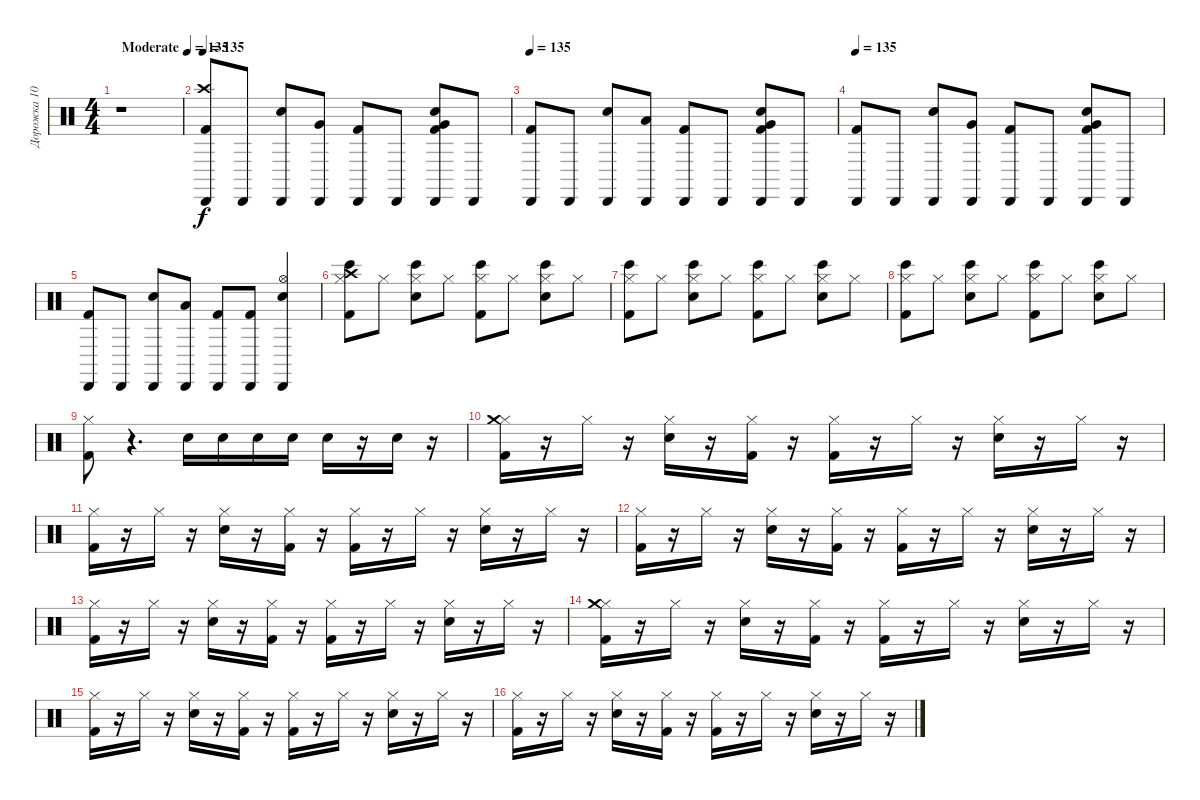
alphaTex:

\track ("Дорожка 10" "Дорожка 10") {instrument percussion}
\staff {score}
\articulation defaults
\ts (4 4)
\tempo (135 "Moderate")
\clef neutral
\ks c
r.1{dy f} |
\tempo 135
("Cabasa (hit)" "Crash high (hit)" "Kick (hit) 2").8 "Cabasa (hit)".8 ("Electric Snare (hit)" "Cabasa (hit)").8 ("Very Low Tom (hit)" "Cabasa (hit)").8 ("Cabasa (hit)" "Kick (hit) 2").8 "Cabasa (hit)".8 ("Cabasa (hit)" "Kick (hit) 2" "Very Low Tom (hit)" "Electric Snare (hit)").8 "Cabasa (hit)".8 |
\tempo 135
("Cabasa (hit)" "Kick (hit) 2").8 "Cabasa (hit)".8 ("Cabasa (hit)" "Electric Snare (hit)").8 ("Cabasa (hit)" "Low Tom (hit)").8 ("Cabasa (hit)" "Kick (hit) 2").8 "Cabasa (hit)".8 ("Cabasa (hit)" "Kick (hit) 2" "Very Low Tom (hit)" "Electric Snare (hit)").8 "Cabasa (hit)".8 |
\tempo 135
("Cabasa (hit)" "Kick (hit) 2").8 "Cabasa (hit)".8 ("Electric Snare (hit)" "Cabasa (hit)").8 ("Very Low Tom (hit)" "Cabasa (hit)").8 ("Cabasa (hit)" "Kick (hit) 2").8 "Cabasa (hit)".8 ("Cabasa (hit)" "Kick (hit) 2" "Very Low Tom (hit)" "Electric Snare (hit)").8 "Cabasa (hit)".8 |
("Cabasa (hit)" "Kick (hit) 2").8 "Cabasa (hit)".8 ("Cabasa (hit)" "Electric Snare (hit)").8 ("Cabasa (hit)" "Low Tom (hit)").8 ("Cabasa (hit)" "Kick (hit) 2").8 ("Kick (hit) 2" "Cabasa (hit)").8 ("Hi-Hat (open)" "Cabasa (hit)" "Electric Snare (hit)").4 |
("Bongo High (hit)" "Hi-Hat (closed)" "Crash high (hit)" "Kick (hit) 2").8 "Hi-Hat (closed)".8 ("Bongo High (hit)" "Hi-Hat (closed)" "Electric Snare (hit)").8 "Hi-Hat (closed)".8 ("Bongo High (hit)" "Hi-Hat (closed)" "Kick (hit) 2").8 "Hi-Hat (closed)".8 ("Bongo High (hit)" "Hi-Hat (closed)" "Electric Snare (hit)").8 "Hi-Hat (closed)".8 |
("Bongo High (hit)" "Hi-Hat (closed)" "Kick (hit) 2").8 "Hi-Hat (closed)".8 ("Bongo High (hit)" "Hi-Hat (closed)" "Electric Snare (hit)").8 "Hi-Hat (closed)".8 ("Bongo High (hit)" "Hi-Hat (closed)" "Kick (hit) 2").8 "Hi-Hat (closed)".8 ("Bongo High (hit)" "Hi-Hat (closed)" "Electric Snare (hit)").8 "Hi-Hat (closed)".8 |
("Bongo High (hit)" "Hi-Hat (closed)" "Kick (hit) 2").8 "Hi-Hat (closed)".8 ("Bongo High (hit)" "Hi-Hat (closed)" "Electric Snare (hit)").8 "Hi-Hat (closed)".8 ("Bongo High (hit)" "Hi-Hat (closed)" "Kick (hit) 2").8 "Hi-Hat (closed)".8 ("Bongo High (hit)" "Hi-Hat (closed)" "Electric Snare (hit)").8 "Hi-Hat (closed)".8 |
("Hi-Hat (closed)" "Kick (hit) 2").8 r.4{d} "Electric Snare (hit)".16 "Electric Snare (hit)".16 "Electric Snare (hit)".16 "Electric Snare (hit)".16 "Electric Snare (hit)".16 r.16 "Electric Snare (hit)".16 r.16 |
("Hi-Hat (closed)" "Crash medium (hit)" "Kick (hit) 2").16 r.16 "Hi-Hat (closed)".16 r.16 ("Hi-Hat (closed)" "Electric Snare (hit)").16 r.16 ("Hi-Hat (closed)" "Kick (hit) 2").16 r.16 ("Hi-Hat (closed)" "Kick (hit) 2").16 r.16 "Hi-Hat (closed)".16 r.16 ("Hi-Hat (closed)" "Electric Snare (hit)").16 r.16 "Hi-Hat (closed)".16 r.16 |
("Hi-Hat (closed)" "Kick (hit) 2").16 r.16 "Hi-Hat (closed)".16 r.16 ("Hi-Hat (closed)" "Electric Snare (hit)").16 r.16 ("Hi-Hat (closed)" "Kick (hit) 2").16 r.16 ("Hi-Hat (closed)" "Kick (hit) 2").16 r.16 "Hi-Hat (closed)".16 r.16 ("Hi-Hat (closed)" "Electric Snare (hit)").16 r.16 "Hi-Hat (closed)".16 r.16 |
("Hi-Hat (closed)" "Kick (hit) 2").16 r.16 "Hi-Hat (closed)".16 r.16 ("Hi-Hat (closed)" "Electric Snare (hit)").16 r.16 ("Hi-Hat (closed)" "Kick (hit) 2").16 r.16 ("Hi-Hat (closed)" "Kick (hit) 2").16 r.16 "Hi-Hat (closed)".16 r.16 ("Hi-Hat (closed)" "Electric Snare (hit)").16 r.16 "Hi-Hat (closed)".16 r.16 |
("Hi-Hat (closed)" "Kick (hit) 2").16 r.16 "Hi-Hat (closed)".16 r.16 ("Hi-Hat (closed)" "Electric Snare (hit)").16 r.16 ("Hi-Hat (closed)" "Kick (hit) 2").16 r.16 ("Hi-Hat (closed)" "Kick (hit) 2").16 r.16 "Hi-Hat (closed)".16 r.16 ("Hi-Hat (closed)" "Electric Snare (hit)").16 r.16 "Hi-Hat (closed)".16 r.16 |
("Hi-Hat (closed)" "Crash medium (hit)" "Kick (hit) 2").16 r.16 "Hi-Hat (closed)".16 r.16 ("Hi-Hat (closed)" "Electric Snare (hit)").16 r.16 ("Hi-Hat (closed)" "Kick (hit) 2").16 r.16 ("Hi-Hat (closed)" "Kick (hit) 2").16 r.16 "Hi-Hat (closed)".16 r.16 ("Hi-Hat (closed)" "Electric Snare (hit)").16 r.16 "Hi-Hat (closed)".16 r.16 |
("Hi-Hat (closed)" "Kick (hit) 2").16 r.16 "Hi-Hat (closed)".16 r.16 ("Hi-Hat (closed)" "Electric Snare (hit)").16 r.16 ("Hi-Hat (closed)" "Kick (hit) 2").16 r.16 ("Hi-Hat (closed)" "Kick (hit) 2").16 r.16 "Hi-Hat (closed)".16 r.16 ("Hi-Hat (closed)" "Electric Snare (hit)").16 r.16 "Hi-Hat (closed)".16 r.16 |
("Hi-Hat (closed)" "Kick (hit) 2").16 r.16 "Hi-Hat (closed)".16 r.16 ("Hi-Hat (closed)" "Electric Snare (hit)").16 r.16 ("Hi-Hat (closed)" "Kick (hit) 2").16 r.16 ("Hi-Hat (closed)" "Kick (hit) 2").16 r.16 "Hi-Hat (closed)".16 r.16 ("Hi-Hat (closed)" "Electric Snare (hit)").16 r.16 "Hi-Hat (closed)".16 r.16
